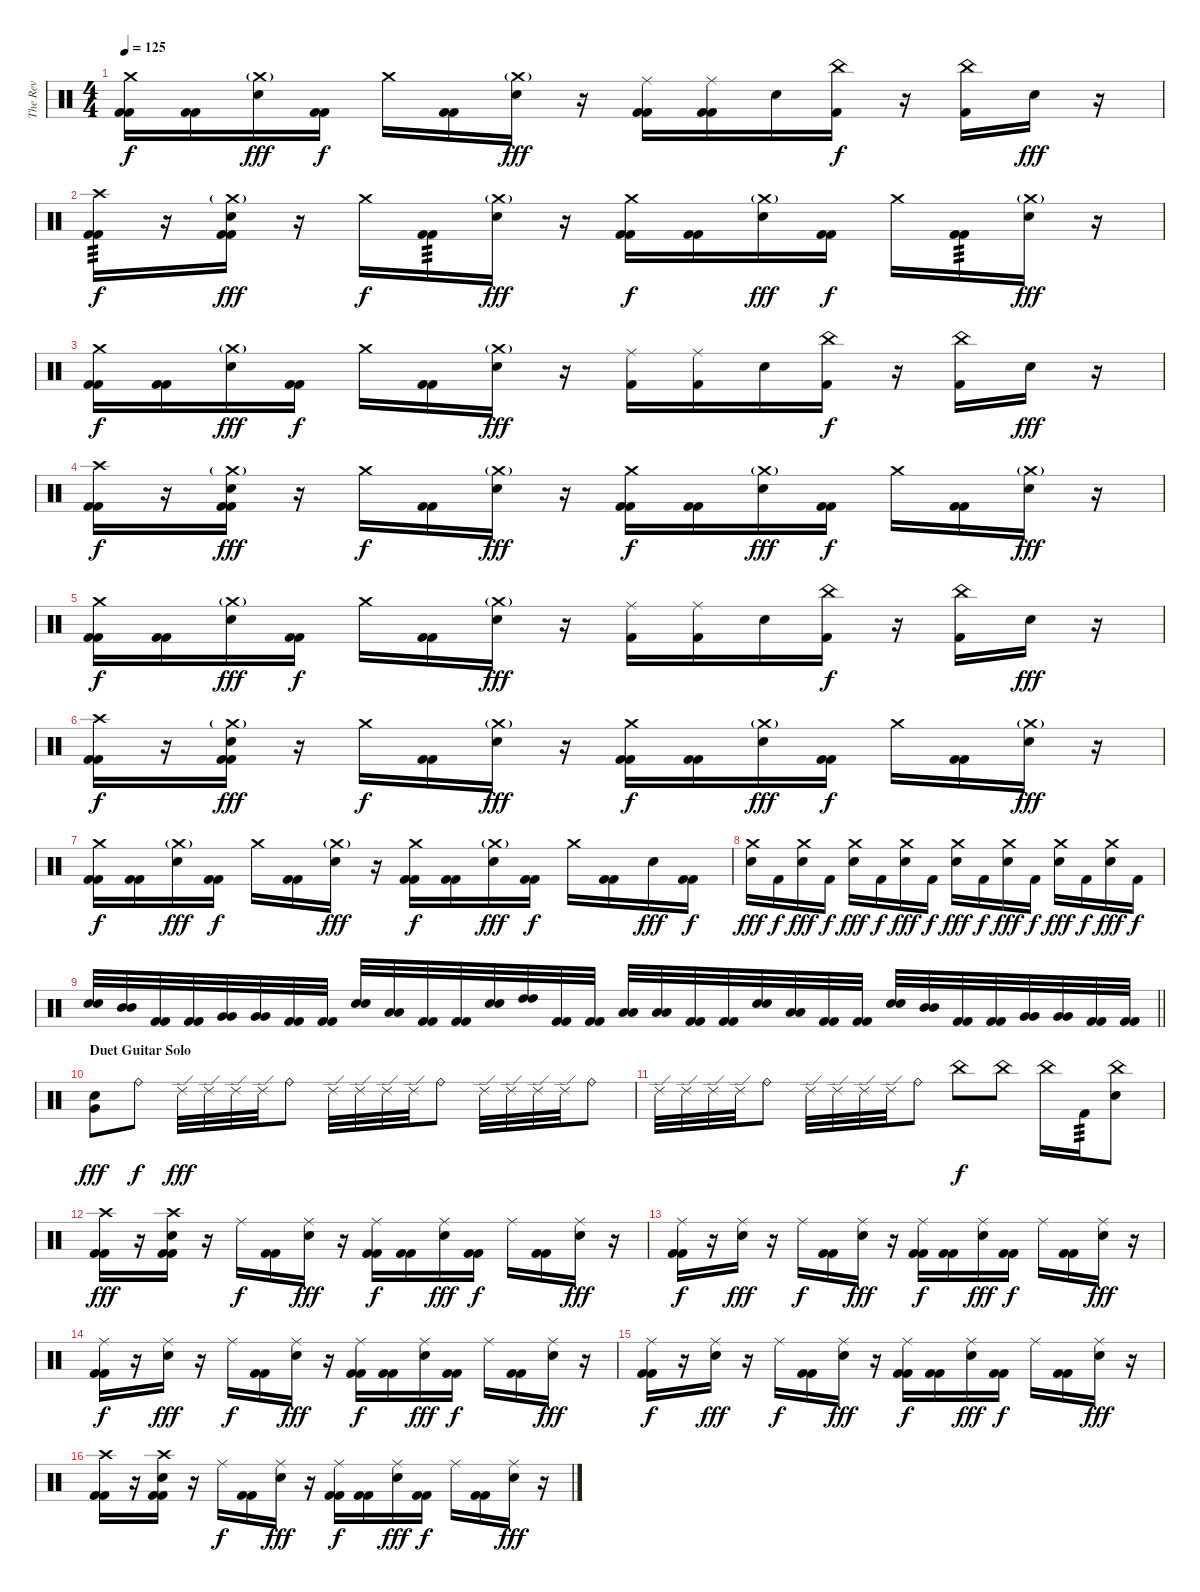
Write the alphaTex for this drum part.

\track ("The Rev" "The Rev") {mute instrument percussion}
\staff {score}
\articulation defaults
\ts (4 4)
\tempo 125
\clef neutral
\ks c
("Crash medium (hit)" "Kick (hit) 2" "Kick (hit) 2").16{dy f} ("Kick (hit) 2" "Kick (hit) 2").16 ("Crash medium (hit)"{g} "Electric Snare (hit)").16{dy fff} ("Kick (hit) 2" "Kick (hit) 2").16{dy f} "Crash medium (hit)".16 ("Kick (hit) 2" "Kick (hit) 2").16 ("Crash medium (hit)"{g} "Electric Snare (hit)").16{dy fff} r.16 ("Ride (middle)" "Kick (hit) 2" "Kick (hit) 2").16 ("Ride (middle)" "Kick (hit) 2" "Kick (hit) 2").16 "Electric Snare (hit)".16 ("China (hit)" "Kick (hit) 2").16{dy f} r.16 ("China (hit)" "Kick (hit) 2").16 "Electric Snare (hit)".16{dy fff} r.16 |
("Crash high (hit)" "Kick (hit) 2" "Kick (hit) 2").16{tp 3 dy f} r.16 ("Crash medium (hit)"{g} "Electric Snare (hit)" "Kick (hit) 2" "Kick (hit) 2").16{dy fff} r.16 "Crash medium (hit)".16{dy f} ("Kick (hit) 2" "Kick (hit) 2").16{tp 3} ("Crash medium (hit)"{g} "Electric Snare (hit)").16{dy fff} r.16 ("Crash medium (hit)" "Kick (hit) 2" "Kick (hit) 2").16{dy f} ("Kick (hit) 2" "Kick (hit) 2").16 ("Crash medium (hit)"{g} "Electric Snare (hit)").16{dy fff} ("Kick (hit) 2" "Kick (hit) 2").16{dy f} "Crash medium (hit)".16 ("Kick (hit) 2" "Kick (hit) 2").16{tp 3} ("Crash medium (hit)"{g} "Electric Snare (hit)").16{dy fff} r.16 |
("Crash medium (hit)" "Kick (hit) 2" "Kick (hit) 2").16{dy f} ("Kick (hit) 2" "Kick (hit) 2").16 ("Crash medium (hit)"{g} "Electric Snare (hit)").16{dy fff} ("Kick (hit) 2" "Kick (hit) 2").16{dy f} "Crash medium (hit)".16 ("Kick (hit) 2" "Kick (hit) 2").16 ("Crash medium (hit)"{g} "Electric Snare (hit)").16{dy fff} r.16 ("Ride (middle)" "Kick (hit) 2").16 ("Ride (middle)" "Kick (hit) 2").16 "Electric Snare (hit)".16 ("China (hit)" "Kick (hit) 2").16{dy f} r.16 ("China (hit)" "Kick (hit) 2").16 "Electric Snare (hit)".16{dy fff} r.16 |
("Crash high (hit)" "Kick (hit) 2" "Kick (hit) 2").16{dy f} r.16 ("Crash medium (hit)"{g} "Electric Snare (hit)" "Kick (hit) 2" "Kick (hit) 2").16{dy fff} r.16 "Crash medium (hit)".16{dy f} ("Kick (hit) 2" "Kick (hit) 2").16 ("Crash medium (hit)"{g} "Electric Snare (hit)").16{dy fff} r.16 ("Crash medium (hit)" "Kick (hit) 2" "Kick (hit) 2").16{dy f} ("Kick (hit) 2" "Kick (hit) 2").16 ("Crash medium (hit)"{g} "Electric Snare (hit)").16{dy fff} ("Kick (hit) 2" "Kick (hit) 2").16{dy f} "Crash medium (hit)".16 ("Kick (hit) 2" "Kick (hit) 2").16 ("Crash medium (hit)"{g} "Electric Snare (hit)").16{dy fff} r.16 |
("Crash medium (hit)" "Kick (hit) 2" "Kick (hit) 2").16{dy f} ("Kick (hit) 2" "Kick (hit) 2").16 ("Crash medium (hit)"{g} "Electric Snare (hit)").16{dy fff} ("Kick (hit) 2" "Kick (hit) 2").16{dy f} "Crash medium (hit)".16 ("Kick (hit) 2" "Kick (hit) 2").16 ("Crash medium (hit)"{g} "Electric Snare (hit)").16{dy fff} r.16 ("Ride (middle)" "Kick (hit) 2").16 ("Ride (middle)" "Kick (hit) 2").16 "Electric Snare (hit)".16 ("China (hit)" "Kick (hit) 2").16{dy f} r.16 ("China (hit)" "Kick (hit) 2").16 "Electric Snare (hit)".16{dy fff} r.16 |
("Crash high (hit)" "Kick (hit) 2" "Kick (hit) 2").16{dy f} r.16 ("Crash medium (hit)"{g} "Electric Snare (hit)" "Kick (hit) 2" "Kick (hit) 2").16{dy fff} r.16 "Crash medium (hit)".16{dy f} ("Kick (hit) 2" "Kick (hit) 2").16 ("Crash medium (hit)"{g} "Electric Snare (hit)").16{dy fff} r.16 ("Crash medium (hit)" "Kick (hit) 2" "Kick (hit) 2").16{dy f} ("Kick (hit) 2" "Kick (hit) 2").16 ("Crash medium (hit)"{g} "Electric Snare (hit)").16{dy fff} ("Kick (hit) 2" "Kick (hit) 2").16{dy f} "Crash medium (hit)".16 ("Kick (hit) 2" "Kick (hit) 2").16 ("Crash medium (hit)"{g} "Electric Snare (hit)").16{dy fff} r.16 |
("Crash medium (hit)" "Kick (hit) 2" "Kick (hit) 2").16{dy f} ("Kick (hit) 2" "Kick (hit) 2").16 ("Crash medium (hit)"{g} "Electric Snare (hit)").16{dy fff} ("Kick (hit) 2" "Kick (hit) 2").16{dy f} "Crash medium (hit)".16 ("Kick (hit) 2" "Kick (hit) 2").16 ("Crash medium (hit)"{g} "Electric Snare (hit)").16{dy fff} r.16 ("Crash medium (hit)" "Kick (hit) 2" "Kick (hit) 2").16{dy f} ("Kick (hit) 2" "Kick (hit) 2").16 ("Crash medium (hit)"{g} "Electric Snare (hit)").16{dy fff} ("Kick (hit) 2" "Kick (hit) 2").16{dy f} "Crash medium (hit)".16 ("Kick (hit) 2" "Kick (hit) 2").16 "Electric Snare (hit)".16{dy fff} ("Kick (hit) 2" "Kick (hit) 2").16{dy f} |
("Crash medium (hit)" "Electric Snare (hit)").16{dy fff} "Kick (hit) 2".16{dy f} ("Crash medium (hit)" "Electric Snare (hit)").16{dy fff} "Kick (hit) 2".16{dy f} ("Crash medium (hit)" "Electric Snare (hit)").16{dy fff} "Kick (hit) 2".16{dy f} ("Crash medium (hit)" "Electric Snare (hit)").16{dy fff} "Kick (hit) 2".16{dy f} ("Crash medium (hit)" "Electric Snare (hit)").16{dy fff} "Kick (hit) 2".16{dy f} ("Crash medium (hit)" "Electric Snare (hit)").16{dy fff} "Kick (hit) 2".16{dy f} ("Crash medium (hit)" "Electric Snare (hit)").16{dy fff} "Kick (hit) 2".16{dy f} ("Crash medium (hit)" "Electric Snare (hit)").16{dy fff} "Kick (hit) 2".16{dy f} |
\barLineRight lightlight
("Electric Snare (hit)" "Electric Snare (hit)").32 ("Mid Tom (hit)" "Mid Tom (hit)").32 ("Kick (hit) 2" "Kick (hit) 2").32 ("Kick (hit) 2" "Kick (hit) 2").32 ("Very Low Tom (hit)" "Very Low Tom (hit)").32 ("Very Low Tom (hit)" "Very Low Tom (hit)").32 ("Kick (hit) 2" "Kick (hit) 2").32 ("Kick (hit) 2" "Kick (hit) 2").32 ("Electric Snare (hit)" "Electric Snare (hit)").32 ("Low Tom (hit)" "Low Tom (hit)").32 ("Kick (hit) 2" "Kick (hit) 2").32 ("Kick (hit) 2" "Kick (hit) 2").32 ("Electric Snare (hit)" "Electric Snare (hit)").32 ("High Tom (hit)" "High Tom (hit)").32 ("Kick (hit) 2" "Kick (hit) 2").32 ("Kick (hit) 2" "Kick (hit) 2").32 ("Low Floor Tom (hit)" "Low Floor Tom (hit)").32 ("Low Floor Tom (hit)" "Low Floor Tom (hit)").32 ("Kick (hit) 2" "Kick (hit) 2").32 ("Kick (hit) 2" "Kick (hit) 2").32 ("Electric Snare (hit)" "Electric Snare (hit)").32 ("Low Tom (hit)" "Low Tom (hit)").32 ("Kick (hit) 2" "Kick (hit) 2").32 ("Kick (hit) 2" "Kick (hit) 2").32 ("Electric Snare (hit)" "Electric Snare (hit)").32 ("Mid Tom (hit)" "Mid Tom (hit)").32 ("Kick (hit) 2" "Kick (hit) 2").32 ("Kick (hit) 2" "Kick (hit) 2").32 ("Very Low Tom (hit)" "Very Low Tom (hit)").32 ("Very Low Tom (hit)" "Very Low Tom (hit)").32 ("Kick (hit) 2" "Kick (hit) 2").32 ("Kick (hit) 2" "Kick (hit) 2").32 |
\section ("" "Duet Guitar Solo")
("Electric Snare (hit)" "Very Low Tom (hit)").8{dy fff} "Ride (bell)".8{dy f} "Ride (edge) 2".32{dy fff} "Ride (edge) 2".32 "Ride (edge) 2".32 "Ride (edge) 2".32 "Ride (bell)".8 "Ride (edge) 2".32 "Ride (edge) 2".32 "Ride (edge) 2".32 "Ride (edge) 2".32 "Ride (bell)".8 "Ride (edge) 2".32 "Ride (edge) 2".32 "Ride (edge) 2".32 "Ride (edge) 2".32 "Ride (bell)".8 |
"Ride (edge) 2".32 "Ride (edge) 2".32 "Ride (edge) 2".32 "Ride (edge) 2".32 "Ride (bell)".8 "Ride (edge) 2".32 "Ride (edge) 2".32 "Ride (edge) 2".32 "Ride (edge) 2".32 "Ride (bell)".8 "China (hit)".8{dy f} "China (hit)".8 "China (hit)".16 "Kick (hit) 2".16{tp 3} ("China (hit)" "Electric Snare (hit)").8 |
("Crash high (hit)" "Kick (hit) 2" "Kick (hit) 2").16{dy fff} r.16 ("Crash high (hit)" "Electric Snare (hit)" "Kick (hit) 2" "Kick (hit) 2").16 r.16 "Ride (middle)".16{dy f} ("Kick (hit) 2" "Kick (hit) 2").16 ("Ride (middle)" "Electric Snare (hit)").16{dy fff} r.16 ("Ride (middle)" "Kick (hit) 2" "Kick (hit) 2").16{dy f} ("Kick (hit) 2" "Kick (hit) 2").16 ("Ride (middle)" "Electric Snare (hit)").16{dy fff} ("Kick (hit) 2" "Kick (hit) 2").16{dy f} "Ride (middle)".16 ("Kick (hit) 2" "Kick (hit) 2").16 ("Ride (middle)" "Electric Snare (hit)").16{dy fff} r.16 |
("Ride (middle)" "Kick (hit) 2" "Kick (hit) 2").16{dy f} r.16 ("Ride (middle)" "Electric Snare (hit)").16{dy fff} r.16 "Ride (middle)".16{dy f} ("Kick (hit) 2" "Kick (hit) 2").16 ("Ride (middle)" "Electric Snare (hit)").16{dy fff} r.16 ("Ride (middle)" "Kick (hit) 2" "Kick (hit) 2").16{dy f} ("Kick (hit) 2" "Kick (hit) 2").16 ("Ride (middle)" "Electric Snare (hit)").16{dy fff} ("Kick (hit) 2" "Kick (hit) 2").16{dy f} "Ride (middle)".16 ("Kick (hit) 2" "Kick (hit) 2").16 ("Ride (middle)" "Electric Snare (hit)").16{dy fff} r.16 |
("Ride (middle)" "Kick (hit) 2" "Kick (hit) 2").16{dy f} r.16 ("Ride (middle)" "Electric Snare (hit)").16{dy fff} r.16 "Ride (middle)".16{dy f} ("Kick (hit) 2" "Kick (hit) 2").16 ("Ride (middle)" "Electric Snare (hit)").16{dy fff} r.16 ("Ride (middle)" "Kick (hit) 2" "Kick (hit) 2").16{dy f} ("Kick (hit) 2" "Kick (hit) 2").16 ("Ride (middle)" "Electric Snare (hit)").16{dy fff} ("Kick (hit) 2" "Kick (hit) 2").16{dy f} "Ride (middle)".16 ("Kick (hit) 2" "Kick (hit) 2").16 ("Ride (middle)" "Electric Snare (hit)").16{dy fff} r.16 |
("Ride (middle)" "Kick (hit) 2" "Kick (hit) 2").16{dy f} r.16 ("Ride (middle)" "Electric Snare (hit)").16{dy fff} r.16 "Ride (middle)".16{dy f} ("Kick (hit) 2" "Kick (hit) 2").16 ("Ride (middle)" "Electric Snare (hit)").16{dy fff} r.16 ("Ride (middle)" "Kick (hit) 2" "Kick (hit) 2").16{dy f} ("Kick (hit) 2" "Kick (hit) 2").16 ("Ride (middle)" "Electric Snare (hit)").16{dy fff} ("Kick (hit) 2" "Kick (hit) 2").16{dy f} "Ride (middle)".16 ("Kick (hit) 2" "Kick (hit) 2").16 ("Ride (middle)" "Electric Snare (hit)").16{dy fff} r.16 |
("Crash high (hit)" "Kick (hit) 2" "Kick (hit) 2").16 r.16 ("Crash high (hit)" "Electric Snare (hit)" "Kick (hit) 2" "Kick (hit) 2").16 r.16 "Ride (middle)".16{dy f} ("Kick (hit) 2" "Kick (hit) 2").16 ("Ride (middle)" "Electric Snare (hit)").16{dy fff} r.16 ("Ride (middle)" "Kick (hit) 2" "Kick (hit) 2").16{dy f} ("Kick (hit) 2" "Kick (hit) 2").16 ("Ride (middle)" "Electric Snare (hit)").16{dy fff} ("Kick (hit) 2" "Kick (hit) 2").16{dy f} "Ride (middle)".16 ("Kick (hit) 2" "Kick (hit) 2").16 ("Ride (middle)" "Electric Snare (hit)").16{dy fff} r.16
